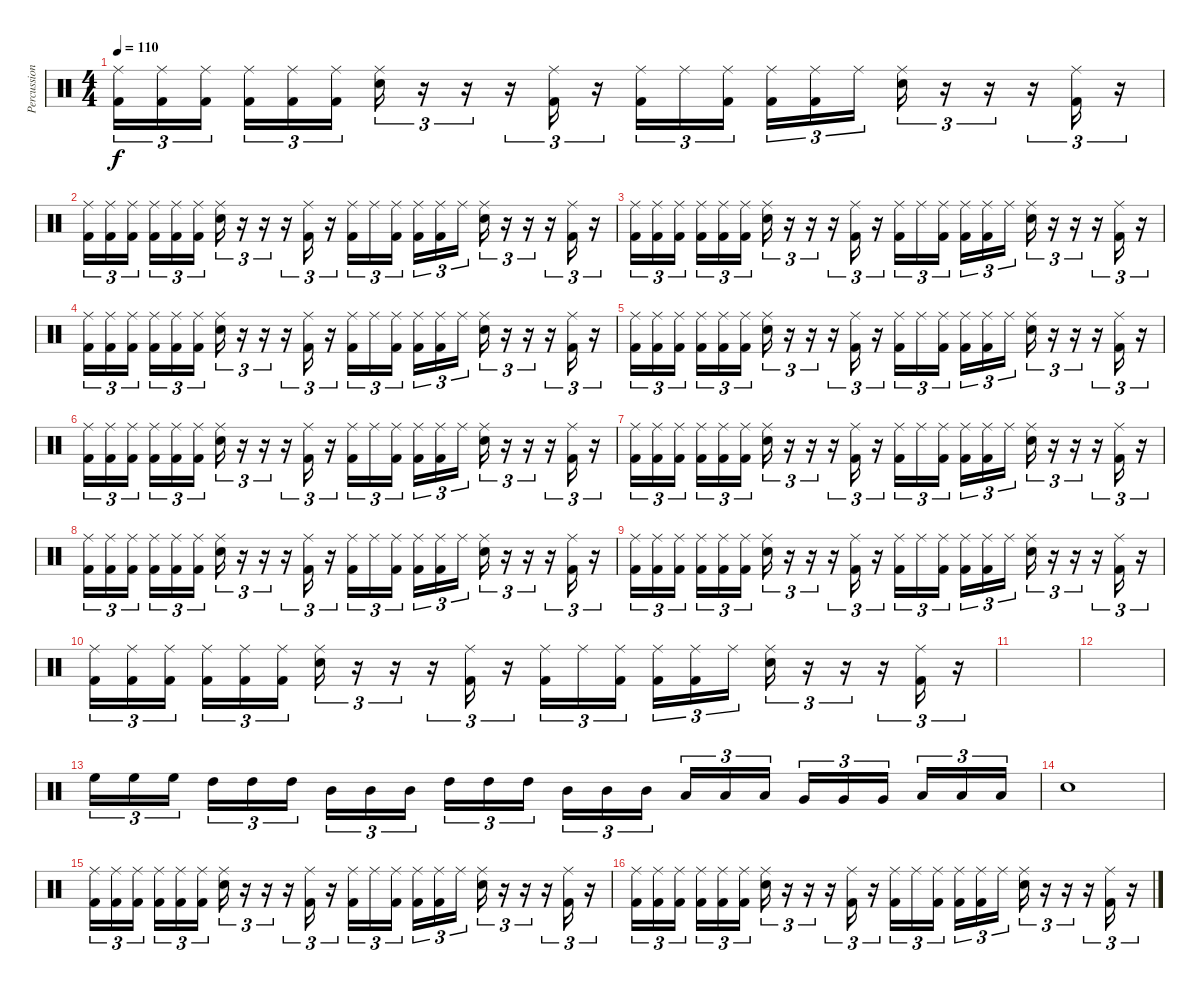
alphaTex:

\track ("Percussion" "Percussion") {instrument percussion}
\staff {score}
\articulation defaults
\ts (4 4)
\tempo 110
\clef neutral
\ks c
("Ride (middle)" "Kick (hit) 2").16{tu (3 2) dy f} ("Ride (middle)" "Kick (hit) 2").16{tu (3 2)} ("Ride (middle)" "Kick (hit) 2").16{tu (3 2)} ("Ride (middle)" "Kick (hit) 2").16{tu (3 2)} ("Ride (middle)" "Kick (hit) 2").16{tu (3 2)} ("Ride (middle)" "Kick (hit) 2").16{tu (3 2)} ("Ride (middle)" "Electric Snare (hit)").16{tu (3 2)} r.16{tu (3 2)} r.16{tu (3 2)} r.16{tu (3 2)} ("Ride (middle)" "Kick (hit) 2").16{tu (3 2)} r.16{tu (3 2)} ("Ride (middle)" "Kick (hit) 2").16{tu (3 2)} "Ride (middle)".16{tu (3 2)} ("Ride (middle)" "Kick (hit) 2").16{tu (3 2)} ("Ride (middle)" "Kick (hit) 2").16{tu (3 2)} ("Ride (middle)" "Kick (hit) 2").16{tu (3 2)} "Ride (middle)".16{tu (3 2)} ("Ride (middle)" "Electric Snare (hit)").16{tu (3 2)} r.16{tu (3 2)} r.16{tu (3 2)} r.16{tu (3 2)} ("Ride (middle)" "Kick (hit) 2").16{tu (3 2)} r.16{tu (3 2)} |
("Ride (middle)" "Kick (hit) 2").16{tu (3 2)} ("Ride (middle)" "Kick (hit) 2").16{tu (3 2)} ("Ride (middle)" "Kick (hit) 2").16{tu (3 2)} ("Ride (middle)" "Kick (hit) 2").16{tu (3 2)} ("Ride (middle)" "Kick (hit) 2").16{tu (3 2)} ("Ride (middle)" "Kick (hit) 2").16{tu (3 2)} ("Ride (middle)" "Electric Snare (hit)").16{tu (3 2)} r.16{tu (3 2)} r.16{tu (3 2)} r.16{tu (3 2)} ("Ride (middle)" "Kick (hit) 2").16{tu (3 2)} r.16{tu (3 2)} ("Ride (middle)" "Kick (hit) 2").16{tu (3 2)} "Ride (middle)".16{tu (3 2)} ("Ride (middle)" "Kick (hit) 2").16{tu (3 2)} ("Ride (middle)" "Kick (hit) 2").16{tu (3 2)} ("Ride (middle)" "Kick (hit) 2").16{tu (3 2)} "Ride (middle)".16{tu (3 2)} ("Ride (middle)" "Electric Snare (hit)").16{tu (3 2)} r.16{tu (3 2)} r.16{tu (3 2)} r.16{tu (3 2)} ("Ride (middle)" "Kick (hit) 2").16{tu (3 2)} r.16{tu (3 2)} |
("Ride (middle)" "Kick (hit) 2").16{tu (3 2)} ("Ride (middle)" "Kick (hit) 2").16{tu (3 2)} ("Ride (middle)" "Kick (hit) 2").16{tu (3 2)} ("Ride (middle)" "Kick (hit) 2").16{tu (3 2)} ("Ride (middle)" "Kick (hit) 2").16{tu (3 2)} ("Ride (middle)" "Kick (hit) 2").16{tu (3 2)} ("Ride (middle)" "Electric Snare (hit)").16{tu (3 2)} r.16{tu (3 2)} r.16{tu (3 2)} r.16{tu (3 2)} ("Ride (middle)" "Kick (hit) 2").16{tu (3 2)} r.16{tu (3 2)} ("Ride (middle)" "Kick (hit) 2").16{tu (3 2)} "Ride (middle)".16{tu (3 2)} ("Ride (middle)" "Kick (hit) 2").16{tu (3 2)} ("Ride (middle)" "Kick (hit) 2").16{tu (3 2)} ("Ride (middle)" "Kick (hit) 2").16{tu (3 2)} "Ride (middle)".16{tu (3 2)} ("Ride (middle)" "Electric Snare (hit)").16{tu (3 2)} r.16{tu (3 2)} r.16{tu (3 2)} r.16{tu (3 2)} ("Ride (middle)" "Kick (hit) 2").16{tu (3 2)} r.16{tu (3 2)} |
("Ride (middle)" "Kick (hit) 2").16{tu (3 2)} ("Ride (middle)" "Kick (hit) 2").16{tu (3 2)} ("Ride (middle)" "Kick (hit) 2").16{tu (3 2)} ("Ride (middle)" "Kick (hit) 2").16{tu (3 2)} ("Ride (middle)" "Kick (hit) 2").16{tu (3 2)} ("Ride (middle)" "Kick (hit) 2").16{tu (3 2)} ("Ride (middle)" "Electric Snare (hit)").16{tu (3 2)} r.16{tu (3 2)} r.16{tu (3 2)} r.16{tu (3 2)} ("Ride (middle)" "Kick (hit) 2").16{tu (3 2)} r.16{tu (3 2)} ("Ride (middle)" "Kick (hit) 2").16{tu (3 2)} "Ride (middle)".16{tu (3 2)} ("Ride (middle)" "Kick (hit) 2").16{tu (3 2)} ("Ride (middle)" "Kick (hit) 2").16{tu (3 2)} ("Ride (middle)" "Kick (hit) 2").16{tu (3 2)} "Ride (middle)".16{tu (3 2)} ("Ride (middle)" "Electric Snare (hit)").16{tu (3 2)} r.16{tu (3 2)} r.16{tu (3 2)} r.16{tu (3 2)} ("Ride (middle)" "Kick (hit) 2").16{tu (3 2)} r.16{tu (3 2)} |
("Ride (middle)" "Kick (hit) 2").16{tu (3 2)} ("Ride (middle)" "Kick (hit) 2").16{tu (3 2)} ("Ride (middle)" "Kick (hit) 2").16{tu (3 2)} ("Ride (middle)" "Kick (hit) 2").16{tu (3 2)} ("Ride (middle)" "Kick (hit) 2").16{tu (3 2)} ("Ride (middle)" "Kick (hit) 2").16{tu (3 2)} ("Ride (middle)" "Electric Snare (hit)").16{tu (3 2)} r.16{tu (3 2)} r.16{tu (3 2)} r.16{tu (3 2)} ("Ride (middle)" "Kick (hit) 2").16{tu (3 2)} r.16{tu (3 2)} ("Ride (middle)" "Kick (hit) 2").16{tu (3 2)} "Ride (middle)".16{tu (3 2)} ("Ride (middle)" "Kick (hit) 2").16{tu (3 2)} ("Ride (middle)" "Kick (hit) 2").16{tu (3 2)} ("Ride (middle)" "Kick (hit) 2").16{tu (3 2)} "Ride (middle)".16{tu (3 2)} ("Ride (middle)" "Electric Snare (hit)").16{tu (3 2)} r.16{tu (3 2)} r.16{tu (3 2)} r.16{tu (3 2)} ("Ride (middle)" "Kick (hit) 2").16{tu (3 2)} r.16{tu (3 2)} |
("Ride (middle)" "Kick (hit) 2").16{tu (3 2)} ("Ride (middle)" "Kick (hit) 2").16{tu (3 2)} ("Ride (middle)" "Kick (hit) 2").16{tu (3 2)} ("Ride (middle)" "Kick (hit) 2").16{tu (3 2)} ("Ride (middle)" "Kick (hit) 2").16{tu (3 2)} ("Ride (middle)" "Kick (hit) 2").16{tu (3 2)} ("Ride (middle)" "Electric Snare (hit)").16{tu (3 2)} r.16{tu (3 2)} r.16{tu (3 2)} r.16{tu (3 2)} ("Ride (middle)" "Kick (hit) 2").16{tu (3 2)} r.16{tu (3 2)} ("Ride (middle)" "Kick (hit) 2").16{tu (3 2)} "Ride (middle)".16{tu (3 2)} ("Ride (middle)" "Kick (hit) 2").16{tu (3 2)} ("Ride (middle)" "Kick (hit) 2").16{tu (3 2)} ("Ride (middle)" "Kick (hit) 2").16{tu (3 2)} "Ride (middle)".16{tu (3 2)} ("Ride (middle)" "Electric Snare (hit)").16{tu (3 2)} r.16{tu (3 2)} r.16{tu (3 2)} r.16{tu (3 2)} ("Ride (middle)" "Kick (hit) 2").16{tu (3 2)} r.16{tu (3 2)} |
("Ride (middle)" "Kick (hit) 2").16{tu (3 2)} ("Ride (middle)" "Kick (hit) 2").16{tu (3 2)} ("Ride (middle)" "Kick (hit) 2").16{tu (3 2)} ("Ride (middle)" "Kick (hit) 2").16{tu (3 2)} ("Ride (middle)" "Kick (hit) 2").16{tu (3 2)} ("Ride (middle)" "Kick (hit) 2").16{tu (3 2)} ("Ride (middle)" "Electric Snare (hit)").16{tu (3 2)} r.16{tu (3 2)} r.16{tu (3 2)} r.16{tu (3 2)} ("Ride (middle)" "Kick (hit) 2").16{tu (3 2)} r.16{tu (3 2)} ("Ride (middle)" "Kick (hit) 2").16{tu (3 2)} "Ride (middle)".16{tu (3 2)} ("Ride (middle)" "Kick (hit) 2").16{tu (3 2)} ("Ride (middle)" "Kick (hit) 2").16{tu (3 2)} ("Ride (middle)" "Kick (hit) 2").16{tu (3 2)} "Ride (middle)".16{tu (3 2)} ("Ride (middle)" "Electric Snare (hit)").16{tu (3 2)} r.16{tu (3 2)} r.16{tu (3 2)} r.16{tu (3 2)} ("Ride (middle)" "Kick (hit) 2").16{tu (3 2)} r.16{tu (3 2)} |
("Ride (middle)" "Kick (hit) 2").16{tu (3 2)} ("Ride (middle)" "Kick (hit) 2").16{tu (3 2)} ("Ride (middle)" "Kick (hit) 2").16{tu (3 2)} ("Ride (middle)" "Kick (hit) 2").16{tu (3 2)} ("Ride (middle)" "Kick (hit) 2").16{tu (3 2)} ("Ride (middle)" "Kick (hit) 2").16{tu (3 2)} ("Ride (middle)" "Electric Snare (hit)").16{tu (3 2)} r.16{tu (3 2)} r.16{tu (3 2)} r.16{tu (3 2)} ("Ride (middle)" "Kick (hit) 2").16{tu (3 2)} r.16{tu (3 2)} ("Ride (middle)" "Kick (hit) 2").16{tu (3 2)} "Ride (middle)".16{tu (3 2)} ("Ride (middle)" "Kick (hit) 2").16{tu (3 2)} ("Ride (middle)" "Kick (hit) 2").16{tu (3 2)} ("Ride (middle)" "Kick (hit) 2").16{tu (3 2)} "Ride (middle)".16{tu (3 2)} ("Ride (middle)" "Electric Snare (hit)").16{tu (3 2)} r.16{tu (3 2)} r.16{tu (3 2)} r.16{tu (3 2)} ("Ride (middle)" "Kick (hit) 2").16{tu (3 2)} r.16{tu (3 2)} |
("Ride (middle)" "Kick (hit) 2").16{tu (3 2)} ("Ride (middle)" "Kick (hit) 2").16{tu (3 2)} ("Ride (middle)" "Kick (hit) 2").16{tu (3 2)} ("Ride (middle)" "Kick (hit) 2").16{tu (3 2)} ("Ride (middle)" "Kick (hit) 2").16{tu (3 2)} ("Ride (middle)" "Kick (hit) 2").16{tu (3 2)} ("Ride (middle)" "Electric Snare (hit)").16{tu (3 2)} r.16{tu (3 2)} r.16{tu (3 2)} r.16{tu (3 2)} ("Ride (middle)" "Kick (hit) 2").16{tu (3 2)} r.16{tu (3 2)} ("Ride (middle)" "Kick (hit) 2").16{tu (3 2)} "Ride (middle)".16{tu (3 2)} ("Ride (middle)" "Kick (hit) 2").16{tu (3 2)} ("Ride (middle)" "Kick (hit) 2").16{tu (3 2)} ("Ride (middle)" "Kick (hit) 2").16{tu (3 2)} "Ride (middle)".16{tu (3 2)} ("Ride (middle)" "Electric Snare (hit)").16{tu (3 2)} r.16{tu (3 2)} r.16{tu (3 2)} r.16{tu (3 2)} ("Ride (middle)" "Kick (hit) 2").16{tu (3 2)} r.16{tu (3 2)} |
("Ride (middle)" "Kick (hit) 2").16{tu (3 2)} ("Ride (middle)" "Kick (hit) 2").16{tu (3 2)} ("Ride (middle)" "Kick (hit) 2").16{tu (3 2)} ("Ride (middle)" "Kick (hit) 2").16{tu (3 2)} ("Ride (middle)" "Kick (hit) 2").16{tu (3 2)} ("Ride (middle)" "Kick (hit) 2").16{tu (3 2)} ("Ride (middle)" "Electric Snare (hit)").16{tu (3 2)} r.16{tu (3 2)} r.16{tu (3 2)} r.16{tu (3 2)} ("Ride (middle)" "Kick (hit) 2").16{tu (3 2)} r.16{tu (3 2)} ("Ride (middle)" "Kick (hit) 2").16{tu (3 2)} "Ride (middle)".16{tu (3 2)} ("Ride (middle)" "Kick (hit) 2").16{tu (3 2)} ("Ride (middle)" "Kick (hit) 2").16{tu (3 2)} ("Ride (middle)" "Kick (hit) 2").16{tu (3 2)} "Ride (middle)".16{tu (3 2)} ("Ride (middle)" "Electric Snare (hit)").16{tu (3 2)} r.16{tu (3 2)} r.16{tu (3 2)} r.16{tu (3 2)} ("Ride (middle)" "Kick (hit) 2").16{tu (3 2)} r.16{tu (3 2)} |
|
|
"High Floor Tom (hit)".16{tu (3 2)} "High Floor Tom (hit)".16{tu (3 2)} "High Floor Tom (hit)".16{tu (3 2)} "High Tom (hit)".16{tu (3 2)} "High Tom (hit)".16{tu (3 2)} "High Tom (hit)".16{tu (3 2)} "Mid Tom (hit)".16{tu (3 2)} "Mid Tom (hit)".16{tu (3 2)} "Mid Tom (hit)".16{tu (3 2)} "High Tom (hit)".16{tu (3 2)} "High Tom (hit)".16{tu (3 2)} "High Tom (hit)".16{tu (3 2)} "Mid Tom (hit)".16{tu (3 2)} "Mid Tom (hit)".16{tu (3 2)} "Mid Tom (hit)".16{tu (3 2)} "Low Tom (hit)".16{tu (3 2)} "Low Tom (hit)".16{tu (3 2)} "Low Tom (hit)".16{tu (3 2)} "Very Low Tom (hit)".16{tu (3 2)} "Very Low Tom (hit)".16{tu (3 2)} "Very Low Tom (hit)".16{tu (3 2)} "Low Floor Tom (hit)".16{tu (3 2)} "Low Floor Tom (hit)".16{tu (3 2)} "Low Floor Tom (hit)".16{tu (3 2)} |
"Electric Snare (hit)".1 |
("Ride (middle)" "Kick (hit) 2").16{tu (3 2)} ("Ride (middle)" "Kick (hit) 2").16{tu (3 2)} ("Ride (middle)" "Kick (hit) 2").16{tu (3 2)} ("Ride (middle)" "Kick (hit) 2").16{tu (3 2)} ("Ride (middle)" "Kick (hit) 2").16{tu (3 2)} ("Ride (middle)" "Kick (hit) 2").16{tu (3 2)} ("Ride (middle)" "Electric Snare (hit)").16{tu (3 2)} r.16{tu (3 2)} r.16{tu (3 2)} r.16{tu (3 2)} ("Ride (middle)" "Kick (hit) 2").16{tu (3 2)} r.16{tu (3 2)} ("Ride (middle)" "Kick (hit) 2").16{tu (3 2)} "Ride (middle)".16{tu (3 2)} ("Ride (middle)" "Kick (hit) 2").16{tu (3 2)} ("Ride (middle)" "Kick (hit) 2").16{tu (3 2)} ("Ride (middle)" "Kick (hit) 2").16{tu (3 2)} "Ride (middle)".16{tu (3 2)} ("Ride (middle)" "Electric Snare (hit)").16{tu (3 2)} r.16{tu (3 2)} r.16{tu (3 2)} r.16{tu (3 2)} ("Ride (middle)" "Kick (hit) 2").16{tu (3 2)} r.16{tu (3 2)} |
("Ride (middle)" "Kick (hit) 2").16{tu (3 2)} ("Ride (middle)" "Kick (hit) 2").16{tu (3 2)} ("Ride (middle)" "Kick (hit) 2").16{tu (3 2)} ("Ride (middle)" "Kick (hit) 2").16{tu (3 2)} ("Ride (middle)" "Kick (hit) 2").16{tu (3 2)} ("Ride (middle)" "Kick (hit) 2").16{tu (3 2)} ("Ride (middle)" "Electric Snare (hit)").16{tu (3 2)} r.16{tu (3 2)} r.16{tu (3 2)} r.16{tu (3 2)} ("Ride (middle)" "Kick (hit) 2").16{tu (3 2)} r.16{tu (3 2)} ("Ride (middle)" "Kick (hit) 2").16{tu (3 2)} "Ride (middle)".16{tu (3 2)} ("Ride (middle)" "Kick (hit) 2").16{tu (3 2)} ("Ride (middle)" "Kick (hit) 2").16{tu (3 2)} ("Ride (middle)" "Kick (hit) 2").16{tu (3 2)} "Ride (middle)".16{tu (3 2)} ("Ride (middle)" "Electric Snare (hit)").16{tu (3 2)} r.16{tu (3 2)} r.16{tu (3 2)} r.16{tu (3 2)} ("Ride (middle)" "Kick (hit) 2").16{tu (3 2)} r.16{tu (3 2)}
